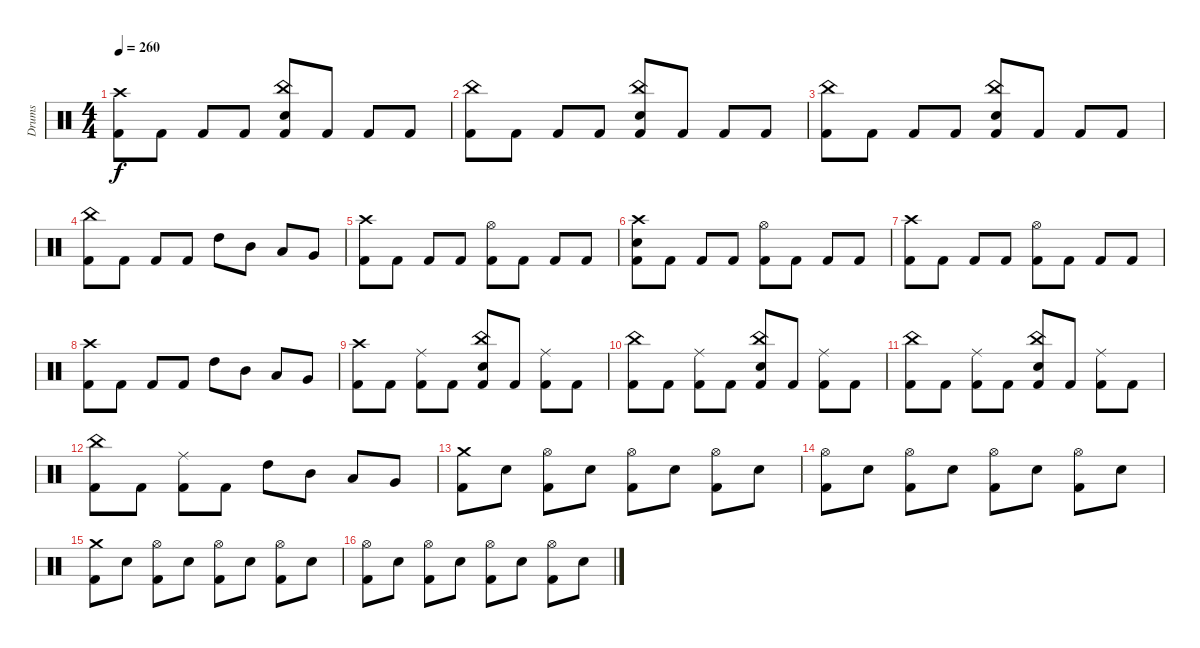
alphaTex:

\track ("Drums" "Drums") {instrument percussion}
\staff {score}
\articulation defaults
\ts (4 4)
\tempo 260
\clef neutral
\ks c
("Crash high (hit)" "Kick (hit) 2").8{dy f} "Kick (hit) 2".8 "Kick (hit) 2".8 "Kick (hit) 2".8 ("China (hit)" "Electric Snare (hit)" "Kick (hit) 2").8 "Kick (hit) 2".8 "Kick (hit) 2".8 "Kick (hit) 2".8 |
("China (hit)" "Kick (hit) 2").8 "Kick (hit) 2".8 "Kick (hit) 2".8 "Kick (hit) 2".8 ("China (hit)" "Electric Snare (hit)" "Kick (hit) 2").8 "Kick (hit) 2".8 "Kick (hit) 2".8 "Kick (hit) 2".8 |
("China (hit)" "Kick (hit) 2").8 "Kick (hit) 2".8 "Kick (hit) 2".8 "Kick (hit) 2".8 ("China (hit)" "Electric Snare (hit)" "Kick (hit) 2").8 "Kick (hit) 2".8 "Kick (hit) 2".8 "Kick (hit) 2".8 |
("China (hit)" "Kick (hit) 2").8 "Kick (hit) 2".8 "Kick (hit) 2".8 "Kick (hit) 2".8 "High Tom (hit)".8 "Mid Tom (hit)".8 "Low Tom (hit)".8 "Very Low Tom (hit)".8 |
("Crash high (hit)" "Kick (hit) 2").8 "Kick (hit) 2".8 "Kick (hit) 2".8 "Kick (hit) 2".8 ("Hi-Hat (open)" "Kick (hit) 2").8 "Kick (hit) 2".8 "Kick (hit) 2".8 "Kick (hit) 2".8 |
("Crash high (hit)" "Electric Snare (hit)" "Kick (hit) 2").8 "Kick (hit) 2".8 "Kick (hit) 2".8 "Kick (hit) 2".8 ("Hi-Hat (open)" "Kick (hit) 2").8 "Kick (hit) 2".8 "Kick (hit) 2".8 "Kick (hit) 2".8 |
("Crash high (hit)" "Kick (hit) 2").8 "Kick (hit) 2".8 "Kick (hit) 2".8 "Kick (hit) 2".8 ("Hi-Hat (open)" "Kick (hit) 2").8 "Kick (hit) 2".8 "Kick (hit) 2".8 "Kick (hit) 2".8 |
("Crash high (hit)" "Kick (hit) 2").8 "Kick (hit) 2".8 "Kick (hit) 2".8 "Kick (hit) 2".8 "High Tom (hit)".8 "Mid Tom (hit)".8 "Low Tom (hit)".8 "Very Low Tom (hit)".8 |
("Crash high (hit)" "Kick (hit) 2").8 "Kick (hit) 2".8 ("Ride (middle)" "Kick (hit) 2").8 "Kick (hit) 2".8 ("China (hit)" "Electric Snare (hit)" "Kick (hit) 2").8 "Kick (hit) 2".8 ("Ride (middle)" "Kick (hit) 2").8 "Kick (hit) 2".8 |
("China (hit)" "Kick (hit) 2").8 "Kick (hit) 2".8 ("Ride (middle)" "Kick (hit) 2").8 "Kick (hit) 2".8 ("China (hit)" "Electric Snare (hit)" "Kick (hit) 2").8 "Kick (hit) 2".8 ("Ride (middle)" "Kick (hit) 2").8 "Kick (hit) 2".8 |
("China (hit)" "Kick (hit) 2").8 "Kick (hit) 2".8 ("Ride (middle)" "Kick (hit) 2").8 "Kick (hit) 2".8 ("China (hit)" "Electric Snare (hit)" "Kick (hit) 2").8 "Kick (hit) 2".8 ("Ride (middle)" "Kick (hit) 2").8 "Kick (hit) 2".8 |
("China (hit)" "Kick (hit) 2").8 "Kick (hit) 2".8 ("Ride (middle)" "Kick (hit) 2").8 "Kick (hit) 2".8 "High Tom (hit)".8 "Mid Tom (hit)".8 "Low Tom (hit)".8 "Very Low Tom (hit)".8 |
("Crash medium (hit)" "Kick (hit) 2").8 "Electric Snare (hit)".8 ("Hi-Hat (open)" "Kick (hit) 2").8 "Electric Snare (hit)".8 ("Hi-Hat (open)" "Kick (hit) 2").8 "Electric Snare (hit)".8 ("Hi-Hat (open)" "Kick (hit) 2").8 "Electric Snare (hit)".8 |
("Hi-Hat (open)" "Kick (hit) 2").8 "Electric Snare (hit)".8 ("Hi-Hat (open)" "Kick (hit) 2").8 "Electric Snare (hit)".8 ("Hi-Hat (open)" "Kick (hit) 2").8 "Electric Snare (hit)".8 ("Hi-Hat (open)" "Kick (hit) 2").8 "Electric Snare (hit)".8 |
("Crash medium (hit)" "Kick (hit) 2").8 "Electric Snare (hit)".8 ("Hi-Hat (open)" "Kick (hit) 2").8 "Electric Snare (hit)".8 ("Hi-Hat (open)" "Kick (hit) 2").8 "Electric Snare (hit)".8 ("Hi-Hat (open)" "Kick (hit) 2").8 "Electric Snare (hit)".8 |
("Hi-Hat (open)" "Kick (hit) 2").8 "Electric Snare (hit)".8 ("Hi-Hat (open)" "Kick (hit) 2").8 "Electric Snare (hit)".8 ("Hi-Hat (open)" "Kick (hit) 2").8 "Electric Snare (hit)".8 ("Hi-Hat (open)" "Kick (hit) 2").8 "Electric Snare (hit)".8
